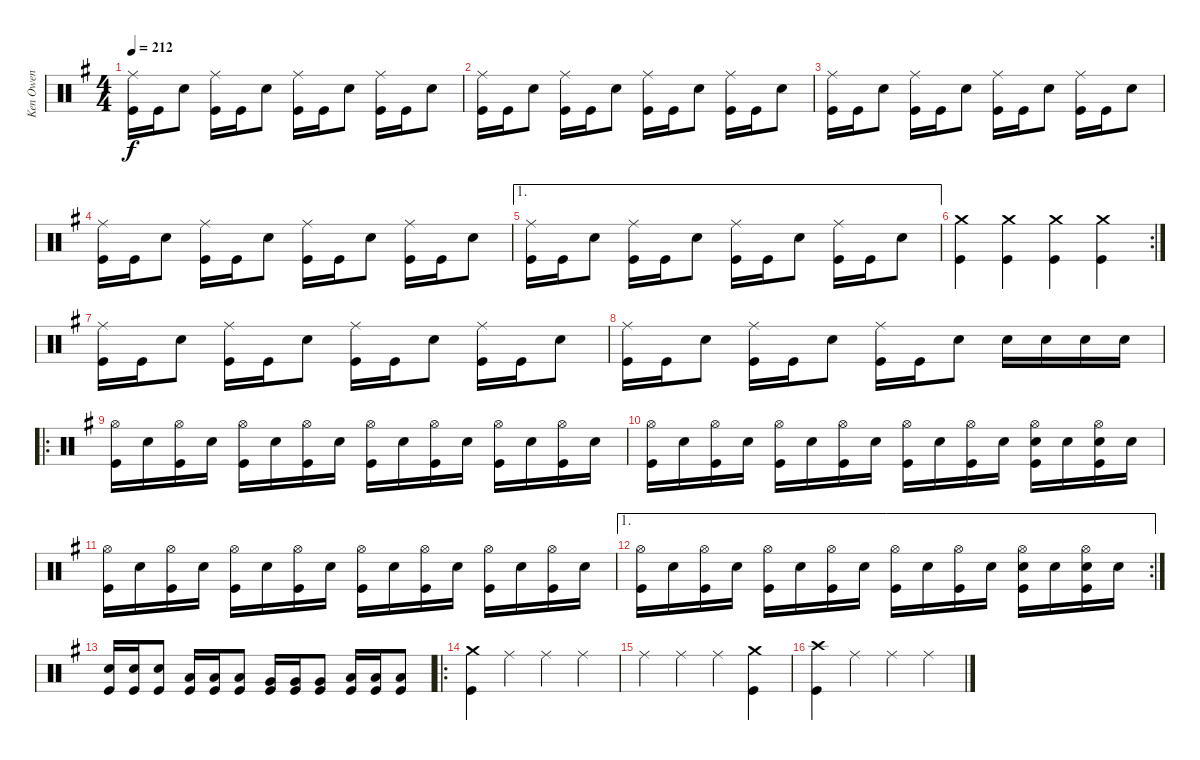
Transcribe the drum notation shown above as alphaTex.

\track ("Ken Owen" "Ken Owen") {instrument percussion}
\staff {score}
\articulation defaults
\ts (4 4)
\tempo 212
\clef neutral
\ks g
("Ride (middle)" "Kick (hit)").16{dy f} "Kick (hit)".16 "Snare (hit) 2".8 ("Ride (middle)" "Kick (hit)").16 "Kick (hit)".16 "Snare (hit) 2".8 ("Ride (middle)" "Kick (hit)").16 "Kick (hit)".16 "Snare (hit) 2".8 ("Ride (middle)" "Kick (hit)").16 "Kick (hit)".16 "Snare (hit) 2".8 |
("Ride (middle)" "Kick (hit)").16 "Kick (hit)".16 "Snare (hit) 2".8 ("Ride (middle)" "Kick (hit)").16 "Kick (hit)".16 "Snare (hit) 2".8 ("Ride (middle)" "Kick (hit)").16 "Kick (hit)".16 "Snare (hit) 2".8 ("Ride (middle)" "Kick (hit)").16 "Kick (hit)".16 "Snare (hit) 2".8 |
("Ride (middle)" "Kick (hit)").16 "Kick (hit)".16 "Snare (hit) 2".8 ("Ride (middle)" "Kick (hit)").16 "Kick (hit)".16 "Snare (hit) 2".8 ("Ride (middle)" "Kick (hit)").16 "Kick (hit)".16 "Snare (hit) 2".8 ("Ride (middle)" "Kick (hit)").16 "Kick (hit)".16 "Snare (hit) 2".8 |
("Ride (middle)" "Kick (hit)").16 "Kick (hit)".16 "Snare (hit) 2".8 ("Ride (middle)" "Kick (hit)").16 "Kick (hit)".16 "Snare (hit) 2".8 ("Ride (middle)" "Kick (hit)").16 "Kick (hit)".16 "Snare (hit) 2".8 ("Ride (middle)" "Kick (hit)").16 "Kick (hit)".16 "Snare (hit) 2".8 |
\ae 1
("Ride (middle)" "Kick (hit)").16 "Kick (hit)".16 "Snare (hit) 2".8 ("Ride (middle)" "Kick (hit)").16 "Kick (hit)".16 "Snare (hit) 2".8 ("Ride (middle)" "Kick (hit)").16 "Kick (hit)".16 "Snare (hit) 2".8 ("Ride (middle)" "Kick (hit)").16 "Kick (hit)".16 "Snare (hit) 2".8 |
\rc 2
("Crash medium (hit)" "Kick (hit)").4 ("Crash medium (hit)" "Kick (hit)").4 ("Crash medium (hit)" "Kick (hit)").4 ("Crash medium (hit)" "Kick (hit)").4 |
("Ride (middle)" "Kick (hit)").16 "Kick (hit)".16 "Snare (hit) 2".8 ("Ride (middle)" "Kick (hit)").16 "Kick (hit)".16 "Snare (hit) 2".8 ("Ride (middle)" "Kick (hit)").16 "Kick (hit)".16 "Snare (hit) 2".8 ("Ride (middle)" "Kick (hit)").16 "Kick (hit)".16 "Snare (hit) 2".8 |
("Ride (middle)" "Kick (hit)").16 "Kick (hit)".16 "Snare (hit) 2".8 ("Ride (middle)" "Kick (hit)").16 "Kick (hit)".16 "Snare (hit) 2".8 ("Ride (middle)" "Kick (hit)").16 "Kick (hit)".16 "Snare (hit) 2".8 "Snare (hit) 2".16 "Snare (hit) 2".16 "Snare (hit) 2".16 "Snare (hit) 2".16 |
\ro
("Hi-Hat (open)" "Kick (hit)").16 "Snare (hit) 2".16 ("Hi-Hat (open)" "Kick (hit)").16 "Snare (hit) 2".16 ("Hi-Hat (open)" "Kick (hit)").16 "Snare (hit) 2".16 ("Hi-Hat (open)" "Kick (hit)").16 "Snare (hit) 2".16 ("Hi-Hat (open)" "Kick (hit)").16 "Snare (hit) 2".16 ("Hi-Hat (open)" "Kick (hit)").16 "Snare (hit) 2".16 ("Hi-Hat (open)" "Kick (hit)").16 "Snare (hit) 2".16 ("Hi-Hat (open)" "Kick (hit)").16 "Snare (hit) 2".16 |
("Hi-Hat (open)" "Kick (hit)").16 "Snare (hit) 2".16 ("Hi-Hat (open)" "Kick (hit)").16 "Snare (hit) 2".16 ("Hi-Hat (open)" "Kick (hit)").16 "Snare (hit) 2".16 ("Hi-Hat (open)" "Kick (hit)").16 "Snare (hit) 2".16 ("Hi-Hat (open)" "Kick (hit)").16 "Snare (hit) 2".16 ("Hi-Hat (open)" "Kick (hit)").16 "Snare (hit) 2".16 ("Hi-Hat (open)" "Snare (hit) 2" "Kick (hit)").16 "Snare (hit) 2".16 ("Hi-Hat (open)" "Snare (hit) 2" "Kick (hit)").16 "Snare (hit) 2".16 |
("Hi-Hat (open)" "Kick (hit)").16 "Snare (hit) 2".16 ("Hi-Hat (open)" "Kick (hit)").16 "Snare (hit) 2".16 ("Hi-Hat (open)" "Kick (hit)").16 "Snare (hit) 2".16 ("Hi-Hat (open)" "Kick (hit)").16 "Snare (hit) 2".16 ("Hi-Hat (open)" "Kick (hit)").16 "Snare (hit) 2".16 ("Hi-Hat (open)" "Kick (hit)").16 "Snare (hit) 2".16 ("Hi-Hat (open)" "Kick (hit)").16 "Snare (hit) 2".16 ("Hi-Hat (open)" "Kick (hit)").16 "Snare (hit) 2".16 |
\ae 1
\rc 2
("Hi-Hat (open)" "Kick (hit)").16 "Snare (hit) 2".16 ("Hi-Hat (open)" "Kick (hit)").16 "Snare (hit) 2".16 ("Hi-Hat (open)" "Kick (hit)").16 "Snare (hit) 2".16 ("Hi-Hat (open)" "Kick (hit)").16 "Snare (hit) 2".16 ("Hi-Hat (open)" "Kick (hit)").16 "Snare (hit) 2".16 ("Hi-Hat (open)" "Kick (hit)").16 "Snare (hit) 2".16 ("Hi-Hat (open)" "Snare (hit) 2" "Kick (hit)").16 "Snare (hit) 2".16 ("Hi-Hat (open)" "Snare (hit) 2" "Kick (hit)").16 "Snare (hit) 2".16 |
("Snare (hit) 2" "Kick (hit)").16 ("Snare (hit) 2" "Kick (hit)").16 ("Snare (hit) 2" "Kick (hit)").8 ("Low Tom (hit)" "Kick (hit)").16 ("Low Tom (hit)" "Kick (hit)").16 ("Low Tom (hit)" "Kick (hit)").8 ("Very Low Tom (hit)" "Kick (hit)").16 ("Very Low Tom (hit)" "Kick (hit)").16 ("Very Low Tom (hit)" "Kick (hit)").8 ("Low Floor Tom (hit)" "Kick (hit)").16 ("Low Floor Tom (hit)" "Kick (hit)").16 ("Low Floor Tom (hit)" "Kick (hit)").8 |
\ro
("Crash medium (hit)" "Kick (hit)").4 "Ride (middle)".4 "Ride (middle)".4 "Ride (middle)".4 |
"Ride (middle)".4 "Ride (middle)".4 "Ride (middle)".4 ("Crash medium (hit)" "Kick (hit)").4 |
("Crash high (hit)" "Kick (hit)").4 "Ride (middle)".4 "Ride (middle)".4 "Ride (middle)".4
